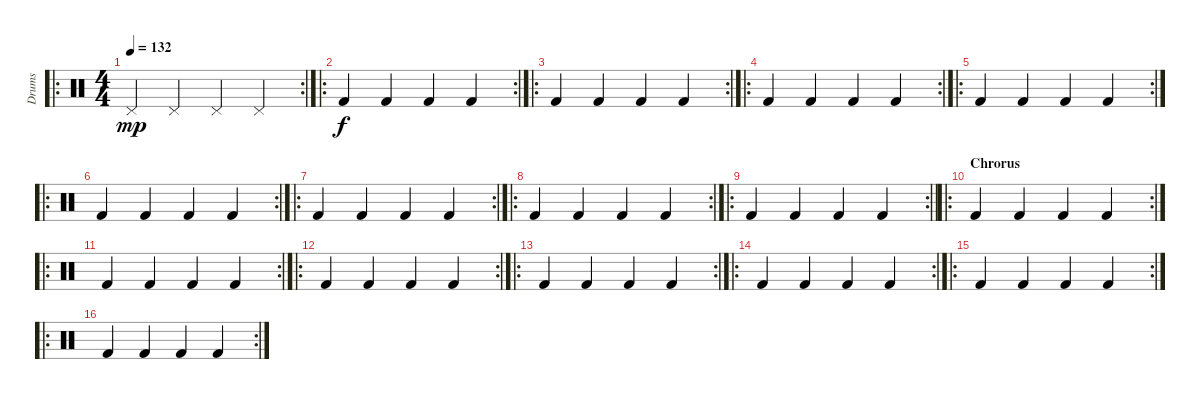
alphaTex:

\track ("Drums" "Drums") {instrument percussion}
\staff {score}
\articulation defaults
\ro
\rc 2
\ts (4 4)
\tempo 132
\clef neutral
\ks c "Pedal Hi-Hat (hit)".4{dy mp} "Pedal Hi-Hat (hit)".4 "Pedal Hi-Hat (hit)".4 "Pedal Hi-Hat (hit)".4
|
\ro
\rc 2 "Kick (hit) 2".4{dy f} "Kick (hit) 2".4 "Kick (hit) 2".4 "Kick (hit) 2".4
|
\ro
\rc 2 "Kick (hit) 2".4 "Kick (hit) 2".4 "Kick (hit) 2".4 "Kick (hit) 2".4
|
\ro
\rc 2 "Kick (hit) 2".4 "Kick (hit) 2".4 "Kick (hit) 2".4 "Kick (hit) 2".4
|
\ro
\rc 2 "Kick (hit) 2".4 "Kick (hit) 2".4 "Kick (hit) 2".4 "Kick (hit) 2".4
|
\ro
\rc 2 "Kick (hit) 2".4 "Kick (hit) 2".4 "Kick (hit) 2".4 "Kick (hit) 2".4
|
\ro
\rc 2 "Kick (hit) 2".4 "Kick (hit) 2".4 "Kick (hit) 2".4 "Kick (hit) 2".4
|
\ro
\rc 2 "Kick (hit) 2".4 "Kick (hit) 2".4 "Kick (hit) 2".4 "Kick (hit) 2".4
|
\ro
\rc 2
\barLineRight lightlight "Kick (hit) 2".4 "Kick (hit) 2".4 "Kick (hit) 2".4 "Kick (hit) 2".4
|
\ro
\rc 2
\section ("" "Chrorus")
"Kick (hit) 2".4 "Kick (hit) 2".4 "Kick (hit) 2".4 "Kick (hit) 2".4 |
\ro
\rc 2 "Kick (hit) 2".4 "Kick (hit) 2".4 "Kick (hit) 2".4 "Kick (hit) 2".4
|
\ro
\rc 2 "Kick (hit) 2".4 "Kick (hit) 2".4 "Kick (hit) 2".4 "Kick (hit) 2".4
|
\ro
\rc 2 "Kick (hit) 2".4 "Kick (hit) 2".4 "Kick (hit) 2".4 "Kick (hit) 2".4
|
\ro
\rc 2 "Kick (hit) 2".4 "Kick (hit) 2".4 "Kick (hit) 2".4 "Kick (hit) 2".4
|
\ro
\rc 2 "Kick (hit) 2".4 "Kick (hit) 2".4 "Kick (hit) 2".4 "Kick (hit) 2".4
|
\ro
\rc 2 "Kick (hit) 2".4 "Kick (hit) 2".4 "Kick (hit) 2".4 "Kick (hit) 2".4
